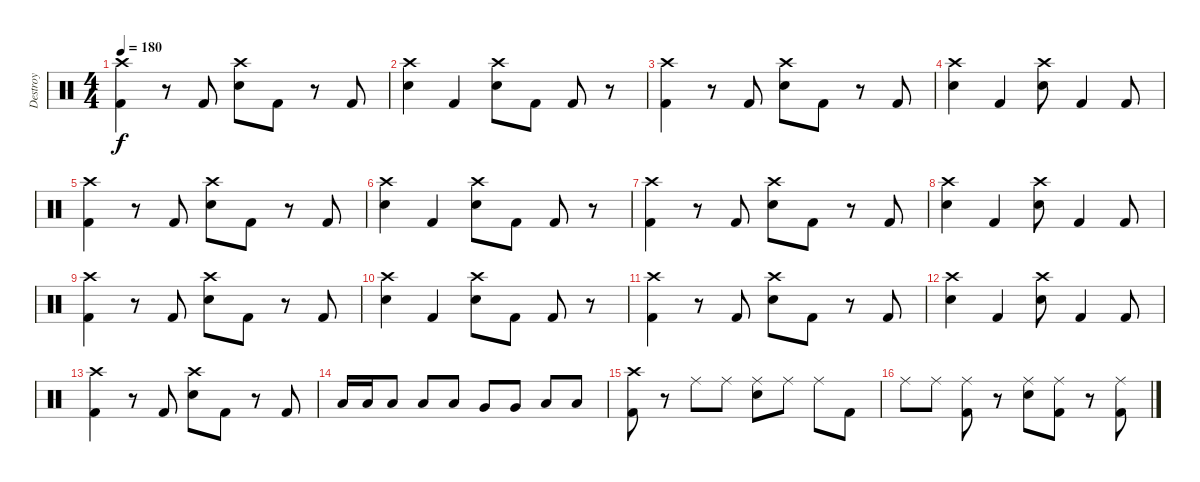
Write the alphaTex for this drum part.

\track ("Destroy" "Destroy") {instrument percussion}
\staff {score}
\articulation defaults
\ts (4 4)
\tempo 180
\clef neutral
\ks c
("Crash high (hit)" "Kick (hit) 2").4{dy f} r.8 "Kick (hit) 2".8 ("Crash high (hit)" "Electric Snare (hit)").8 "Kick (hit) 2".8 r.8 "Kick (hit) 2".8 |
("Crash high (hit)" "Electric Snare (hit)").4 "Kick (hit) 2".4 ("Crash high (hit)" "Electric Snare (hit)").8 "Kick (hit) 2".8 "Kick (hit) 2".8 r.8 |
("Crash high (hit)" "Kick (hit) 2").4 r.8 "Kick (hit) 2".8 ("Crash high (hit)" "Electric Snare (hit)").8 "Kick (hit) 2".8 r.8 "Kick (hit) 2".8 |
("Crash high (hit)" "Electric Snare (hit)").4 "Kick (hit) 2".4 ("Crash high (hit)" "Electric Snare (hit)").8 "Kick (hit) 2".4 "Kick (hit) 2".8 |
("Crash high (hit)" "Kick (hit) 2").4 r.8 "Kick (hit) 2".8 ("Crash high (hit)" "Electric Snare (hit)").8 "Kick (hit) 2".8 r.8 "Kick (hit) 2".8 |
("Crash high (hit)" "Electric Snare (hit)").4 "Kick (hit) 2".4 ("Crash high (hit)" "Electric Snare (hit)").8 "Kick (hit) 2".8 "Kick (hit) 2".8 r.8 |
("Crash high (hit)" "Kick (hit) 2").4 r.8 "Kick (hit) 2".8 ("Crash high (hit)" "Electric Snare (hit)").8 "Kick (hit) 2".8 r.8 "Kick (hit) 2".8 |
("Crash high (hit)" "Electric Snare (hit)").4 "Kick (hit) 2".4 ("Crash high (hit)" "Electric Snare (hit)").8 "Kick (hit) 2".4 "Kick (hit) 2".8 |
("Crash high (hit)" "Kick (hit) 2").4 r.8 "Kick (hit) 2".8 ("Crash high (hit)" "Electric Snare (hit)").8 "Kick (hit) 2".8 r.8 "Kick (hit) 2".8 |
("Crash high (hit)" "Electric Snare (hit)").4 "Kick (hit) 2".4 ("Crash high (hit)" "Electric Snare (hit)").8 "Kick (hit) 2".8 "Kick (hit) 2".8 r.8 |
("Crash high (hit)" "Kick (hit) 2").4 r.8 "Kick (hit) 2".8 ("Crash high (hit)" "Electric Snare (hit)").8 "Kick (hit) 2".8 r.8 "Kick (hit) 2".8 |
("Crash high (hit)" "Electric Snare (hit)").4 "Kick (hit) 2".4 ("Crash high (hit)" "Electric Snare (hit)").8 "Kick (hit) 2".4 "Kick (hit) 2".8 |
("Crash high (hit)" "Kick (hit) 2").4 r.8 "Kick (hit) 2".8 ("Crash high (hit)" "Electric Snare (hit)").8 "Kick (hit) 2".8 r.8 "Kick (hit) 2".8 |
"Low Tom (hit)".16 "Low Tom (hit)".16 "Low Tom (hit)".8 "Low Tom (hit)".8 "Low Tom (hit)".8 "Very Low Tom (hit)".8 "Very Low Tom (hit)".8 "Low Floor Tom (hit)".8 "Low Floor Tom (hit)".8 |
("Crash high (hit)" "Kick (hit) 2").8 r.8 "Ride (middle)".8 "Ride (middle)".8 ("Ride (middle)" "Electric Snare (hit)").8 "Ride (middle)".8 "Ride (middle)".8 "Kick (hit) 2".8 |
"Ride (middle)".8 "Ride (middle)".8 ("Ride (middle)" "Kick (hit) 2").8 r.8 ("Ride (middle)" "Electric Snare (hit)").8 ("Ride (middle)" "Kick (hit) 2").8 r.8 ("Ride (middle)" "Kick (hit) 2").8
